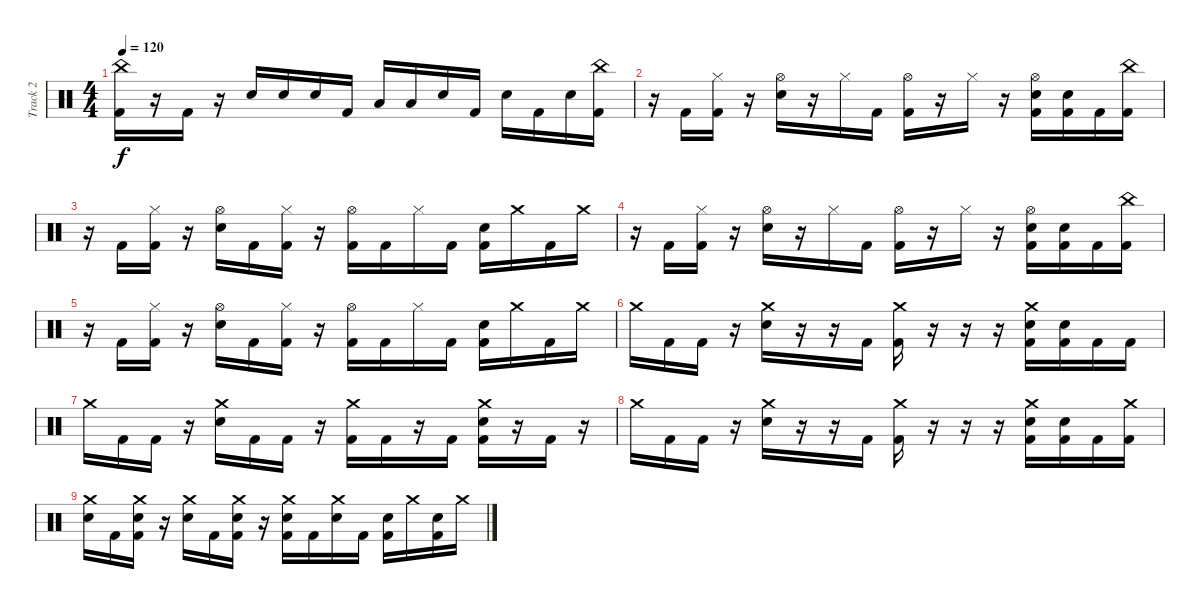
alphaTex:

\track ("Track 2" "Track 2") {instrument percussion}
\staff {score}
\articulation defaults
\ts (4 4)
\tempo 120
\clef neutral
\ks c
("China (hit)" "Kick (hit) 2").16{dy f} r.16 "Kick (hit) 2".16 r.16 "Electric Snare (hit)".16 "Electric Snare (hit)".16 "Electric Snare (hit)".16 "Kick (hit) 2".16 "Low Floor Tom (hit)".16 "Low Floor Tom (hit)".16 "Electric Snare (hit)".16 "Kick (hit) 2".16 "Electric Snare (hit)".16 "Kick (hit) 2".16 "Electric Snare (hit)".16 ("China (hit)" "Kick (hit) 2").16 |
r.16 "Kick (hit) 2".16 ("Hi-Hat (closed)" "Kick (hit) 2").16 r.16 ("Hi-Hat (open)" "Electric Snare (hit)").16 r.16 "Hi-Hat (closed)".16 "Kick (hit) 2".16 ("Hi-Hat (open)" "Kick (hit) 2").16 r.16 "Hi-Hat (closed)".16 r.16 ("Hi-Hat (open)" "Electric Snare (hit)" "Kick (hit) 2").16 ("Electric Snare (hit)" "Kick (hit) 2").16 "Kick (hit) 2".16 ("China (hit)" "Kick (hit) 2").16 |
r.16 "Kick (hit) 2".16 ("Hi-Hat (closed)" "Kick (hit) 2").16 r.16 ("Hi-Hat (open)" "Electric Snare (hit)").16 "Kick (hit) 2".16 ("Hi-Hat (closed)" "Kick (hit) 2").16 r.16 ("Hi-Hat (open)" "Kick (hit) 2").16 "Kick (hit) 2".16 "Hi-Hat (closed)".16 "Kick (hit) 2".16 ("Electric Snare (hit)" "Kick (hit) 2").16 "Crash medium (hit)".16 "Kick (hit) 2".16 "Crash medium (hit)".16 |
r.16 "Kick (hit) 2".16 ("Hi-Hat (closed)" "Kick (hit) 2").16 r.16 ("Hi-Hat (open)" "Electric Snare (hit)").16 r.16 "Hi-Hat (closed)".16 "Kick (hit) 2".16 ("Hi-Hat (open)" "Kick (hit) 2").16 r.16 "Hi-Hat (closed)".16 r.16 ("Hi-Hat (open)" "Electric Snare (hit)" "Kick (hit) 2").16 ("Electric Snare (hit)" "Kick (hit) 2").16 "Kick (hit) 2".16 ("China (hit)" "Kick (hit) 2").16 |
r.16 "Kick (hit) 2".16 ("Hi-Hat (closed)" "Kick (hit) 2").16 r.16 ("Hi-Hat (open)" "Electric Snare (hit)").16 "Kick (hit) 2".16 ("Hi-Hat (closed)" "Kick (hit) 2").16 r.16 ("Hi-Hat (open)" "Kick (hit) 2").16 "Kick (hit) 2".16 "Hi-Hat (closed)".16 "Kick (hit) 2".16 ("Electric Snare (hit)" "Kick (hit) 2").16 "Crash medium (hit)".16 "Kick (hit) 2".16 "Crash medium (hit)".16 |
"Crash medium (hit)".16 "Kick (hit) 2".16 "Kick (hit) 2".16 r.16 ("Crash medium (hit)" "Electric Snare (hit)").16 r.16 r.16 "Kick (hit) 2".16 ("Crash medium (hit)" "Kick (hit) 2").16 r.16 r.16 r.16 ("Crash medium (hit)" "Electric Snare (hit)" "Kick (hit) 2").16 ("Electric Snare (hit)" "Kick (hit) 2").16 "Kick (hit) 2".16 "Kick (hit) 2".16 |
"Crash medium (hit)".16 "Kick (hit) 2".16 "Kick (hit) 2".16 r.16 ("Crash medium (hit)" "Electric Snare (hit)").16 "Kick (hit) 2".16 "Kick (hit) 2".16 r.16 ("Crash medium (hit)" "Kick (hit) 2").16 "Kick (hit) 2".16 r.16 "Kick (hit) 2".16 ("Crash medium (hit)" "Electric Snare (hit)" "Kick (hit) 2").16 r.16 "Kick (hit) 2".16 r.16 |
"Crash medium (hit)".16 "Kick (hit) 2".16 "Kick (hit) 2".16 r.16 ("Crash medium (hit)" "Electric Snare (hit)").16 r.16 r.16 "Kick (hit) 2".16 ("Crash medium (hit)" "Kick (hit) 2").16 r.16 r.16 r.16 ("Crash medium (hit)" "Electric Snare (hit)" "Kick (hit) 2").16 ("Electric Snare (hit)" "Kick (hit) 2").16 "Kick (hit) 2".16 ("Crash medium (hit)" "Kick (hit) 2").16 |
("Crash medium (hit)" "Electric Snare (hit)").16 "Kick (hit) 2".16 ("Crash medium (hit)" "Electric Snare (hit)" "Kick (hit) 2").16 r.16 ("Crash medium (hit)" "Electric Snare (hit)").16 "Kick (hit) 2".16 ("Crash medium (hit)" "Electric Snare (hit)" "Kick (hit) 2").16 r.16 ("Crash medium (hit)" "Electric Snare (hit)" "Kick (hit) 2").16 "Kick (hit) 2".16 ("Crash medium (hit)" "Electric Snare (hit)").16 "Kick (hit) 2".16 ("Electric Snare (hit)" "Kick (hit) 2").16 "Crash medium (hit)".16 ("Electric Snare (hit)" "Kick (hit) 2").16 "Crash medium (hit)".16
